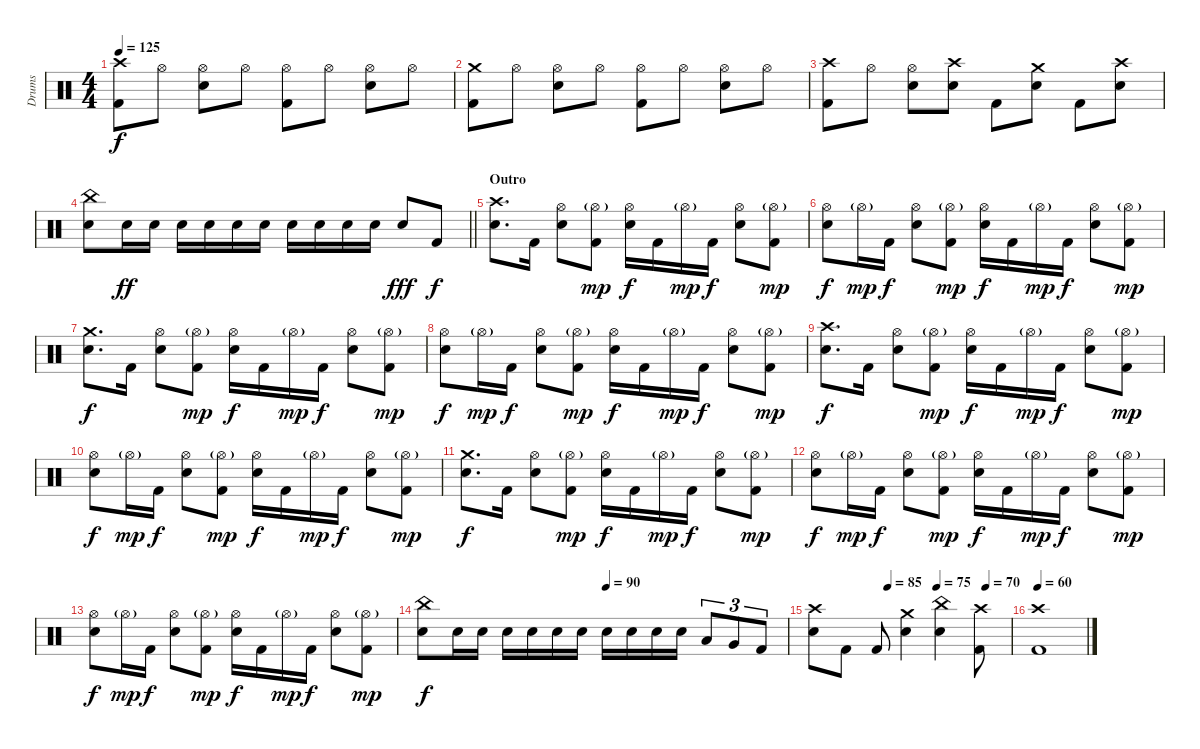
\track ("Drums" "Drums") {instrument percussion}
\staff {score}
\articulation defaults
\ts (4 4)
\tempo 125
\clef neutral
\ks c
("Crash high (hit)" "Kick (hit) 2").8{dy f} "Hi-Hat (open)".8 ("Hi-Hat (open)" "Electric Snare (hit)").8 "Hi-Hat (open)".8 ("Hi-Hat (open)" "Kick (hit) 2").8 "Hi-Hat (open)".8 ("Hi-Hat (open)" "Electric Snare (hit)").8 "Hi-Hat (open)".8 |
("Crash medium (hit)" "Kick (hit) 2").8 "Hi-Hat (open)".8 ("Hi-Hat (open)" "Electric Snare (hit)").8 "Hi-Hat (open)".8 ("Hi-Hat (open)" "Kick (hit) 2").8 "Hi-Hat (open)".8 ("Hi-Hat (open)" "Electric Snare (hit)").8 "Hi-Hat (open)".8 |
("Crash high (hit)" "Kick (hit) 2").8 "Hi-Hat (open)".8 ("Hi-Hat (open)" "Electric Snare (hit)").8 ("Crash high (hit)" "Electric Snare (hit)").8 "Kick (hit) 2".8 ("Crash medium (hit)" "Electric Snare (hit)").8 "Kick (hit) 2".8 ("Crash high (hit)" "Electric Snare (hit)").8 |
\barLineRight lightlight
("China (hit)" "Electric Snare (hit)").8 "Electric Snare (hit)".16{dy ff} "Electric Snare (hit)".16 "Electric Snare (hit)".16 "Electric Snare (hit)".16 "Electric Snare (hit)".16 "Electric Snare (hit)".16 "Electric Snare (hit)".16 "Electric Snare (hit)".16 "Electric Snare (hit)".16 "Electric Snare (hit)".16 "Electric Snare (hit)".8{dy fff} "Kick (hit) 2".8{dy f} |
\section ("" "Outro")
("Crash high (hit)" "Electric Snare (hit)").8{d} "Kick (hit) 2".16 ("Hi-Hat (open)" "Electric Snare (hit)").8 ("Hi-Hat (open)"{g} "Kick (hit) 2").8{dy mp} ("Hi-Hat (open)" "Electric Snare (hit)").16{dy f} "Kick (hit) 2".16 "Hi-Hat (open)"{g}.16{dy mp} "Kick (hit) 2".16{dy f} ("Hi-Hat (open)" "Electric Snare (hit)").8 ("Hi-Hat (open)"{g} "Kick (hit) 2").8{dy mp} |
("Hi-Hat (open)" "Electric Snare (hit)").8{dy f} "Hi-Hat (open)"{g}.16{dy mp} "Kick (hit) 2".16{dy f} ("Hi-Hat (open)" "Electric Snare (hit)").8 ("Hi-Hat (open)"{g} "Kick (hit) 2").8{dy mp} ("Hi-Hat (open)" "Electric Snare (hit)").16{dy f} "Kick (hit) 2".16 "Hi-Hat (open)"{g}.16{dy mp} "Kick (hit) 2".16{dy f} ("Hi-Hat (open)" "Electric Snare (hit)").8 ("Hi-Hat (open)"{g} "Kick (hit) 2").8{dy mp} |
("Crash medium (hit)" "Electric Snare (hit)").8{d dy f} "Kick (hit) 2".16 ("Hi-Hat (open)" "Electric Snare (hit)").8 ("Hi-Hat (open)"{g} "Kick (hit) 2").8{dy mp} ("Hi-Hat (open)" "Electric Snare (hit)").16{dy f} "Kick (hit) 2".16 "Hi-Hat (open)"{g}.16{dy mp} "Kick (hit) 2".16{dy f} ("Hi-Hat (open)" "Electric Snare (hit)").8 ("Hi-Hat (open)"{g} "Kick (hit) 2").8{dy mp} |
("Hi-Hat (open)" "Electric Snare (hit)").8{dy f} "Hi-Hat (open)"{g}.16{dy mp} "Kick (hit) 2".16{dy f} ("Hi-Hat (open)" "Electric Snare (hit)").8 ("Hi-Hat (open)"{g} "Kick (hit) 2").8{dy mp} ("Hi-Hat (open)" "Electric Snare (hit)").16{dy f} "Kick (hit) 2".16 "Hi-Hat (open)"{g}.16{dy mp} "Kick (hit) 2".16{dy f} ("Hi-Hat (open)" "Electric Snare (hit)").8 ("Hi-Hat (open)"{g} "Kick (hit) 2").8{dy mp} |
("Crash high (hit)" "Electric Snare (hit)").8{d dy f} "Kick (hit) 2".16 ("Hi-Hat (open)" "Electric Snare (hit)").8 ("Hi-Hat (open)"{g} "Kick (hit) 2").8{dy mp} ("Hi-Hat (open)" "Electric Snare (hit)").16{dy f} "Kick (hit) 2".16 "Hi-Hat (open)"{g}.16{dy mp} "Kick (hit) 2".16{dy f} ("Hi-Hat (open)" "Electric Snare (hit)").8 ("Hi-Hat (open)"{g} "Kick (hit) 2").8{dy mp} |
("Hi-Hat (open)" "Electric Snare (hit)").8{dy f} "Hi-Hat (open)"{g}.16{dy mp} "Kick (hit) 2".16{dy f} ("Hi-Hat (open)" "Electric Snare (hit)").8 ("Hi-Hat (open)"{g} "Kick (hit) 2").8{dy mp} ("Hi-Hat (open)" "Electric Snare (hit)").16{dy f} "Kick (hit) 2".16 "Hi-Hat (open)"{g}.16{dy mp} "Kick (hit) 2".16{dy f} ("Hi-Hat (open)" "Electric Snare (hit)").8 ("Hi-Hat (open)"{g} "Kick (hit) 2").8{dy mp} |
("Crash medium (hit)" "Electric Snare (hit)").8{d dy f} "Kick (hit) 2".16 ("Hi-Hat (open)" "Electric Snare (hit)").8 ("Hi-Hat (open)"{g} "Kick (hit) 2").8{dy mp} ("Hi-Hat (open)" "Electric Snare (hit)").16{dy f} "Kick (hit) 2".16 "Hi-Hat (open)"{g}.16{dy mp} "Kick (hit) 2".16{dy f} ("Hi-Hat (open)" "Electric Snare (hit)").8 ("Hi-Hat (open)"{g} "Kick (hit) 2").8{dy mp} |
("Hi-Hat (open)" "Electric Snare (hit)").8{dy f} "Hi-Hat (open)"{g}.16{dy mp} "Kick (hit) 2".16{dy f} ("Hi-Hat (open)" "Electric Snare (hit)").8 ("Hi-Hat (open)"{g} "Kick (hit) 2").8{dy mp} ("Hi-Hat (open)" "Electric Snare (hit)").16{dy f} "Kick (hit) 2".16 "Hi-Hat (open)"{g}.16{dy mp} "Kick (hit) 2".16{dy f} ("Hi-Hat (open)" "Electric Snare (hit)").8 ("Hi-Hat (open)"{g} "Kick (hit) 2").8{dy mp} |
("Hi-Hat (open)" "Electric Snare (hit)").8{dy f} "Hi-Hat (open)"{g}.16{dy mp} "Kick (hit) 2".16{dy f} ("Hi-Hat (open)" "Electric Snare (hit)").8 ("Hi-Hat (open)"{g} "Kick (hit) 2").8{dy mp} ("Hi-Hat (open)" "Electric Snare (hit)").16{dy f} "Kick (hit) 2".16 "Hi-Hat (open)"{g}.16{dy mp} "Kick (hit) 2".16{dy f} ("Hi-Hat (open)" "Electric Snare (hit)").8 ("Hi-Hat (open)"{g} "Kick (hit) 2").8{dy mp} |
\tempo (90 0.5)
("China (hit)" "Electric Snare (hit)").8{dy f} "Electric Snare (hit)".16 "Electric Snare (hit)".16 "Electric Snare (hit)".16 "Electric Snare (hit)".16 "Electric Snare (hit)".16 "Electric Snare (hit)".16 "Electric Snare (hit)".16 "Electric Snare (hit)".16 "Electric Snare (hit)".16 "Electric Snare (hit)".16 "Low Tom (hit)".8{tu (3 2)} "Very Low Tom (hit)".8{tu (3 2)} "Kick (hit) 2".8{tu (3 2)} |
\tempo (85 0.375)
\tempo (75 0.625)
\tempo (70 0.875)
("Crash high (hit)" "Electric Snare (hit)").8 "Kick (hit) 2".8 "Kick (hit) 2".8 ("Crash medium (hit)" "Electric Snare (hit)").4 ("China (hit)" "Electric Snare (hit)").4 ("Crash high (hit)" "Kick (hit) 2").8 |
\tempo 60
("Crash high (hit)" "Kick (hit) 2").1
